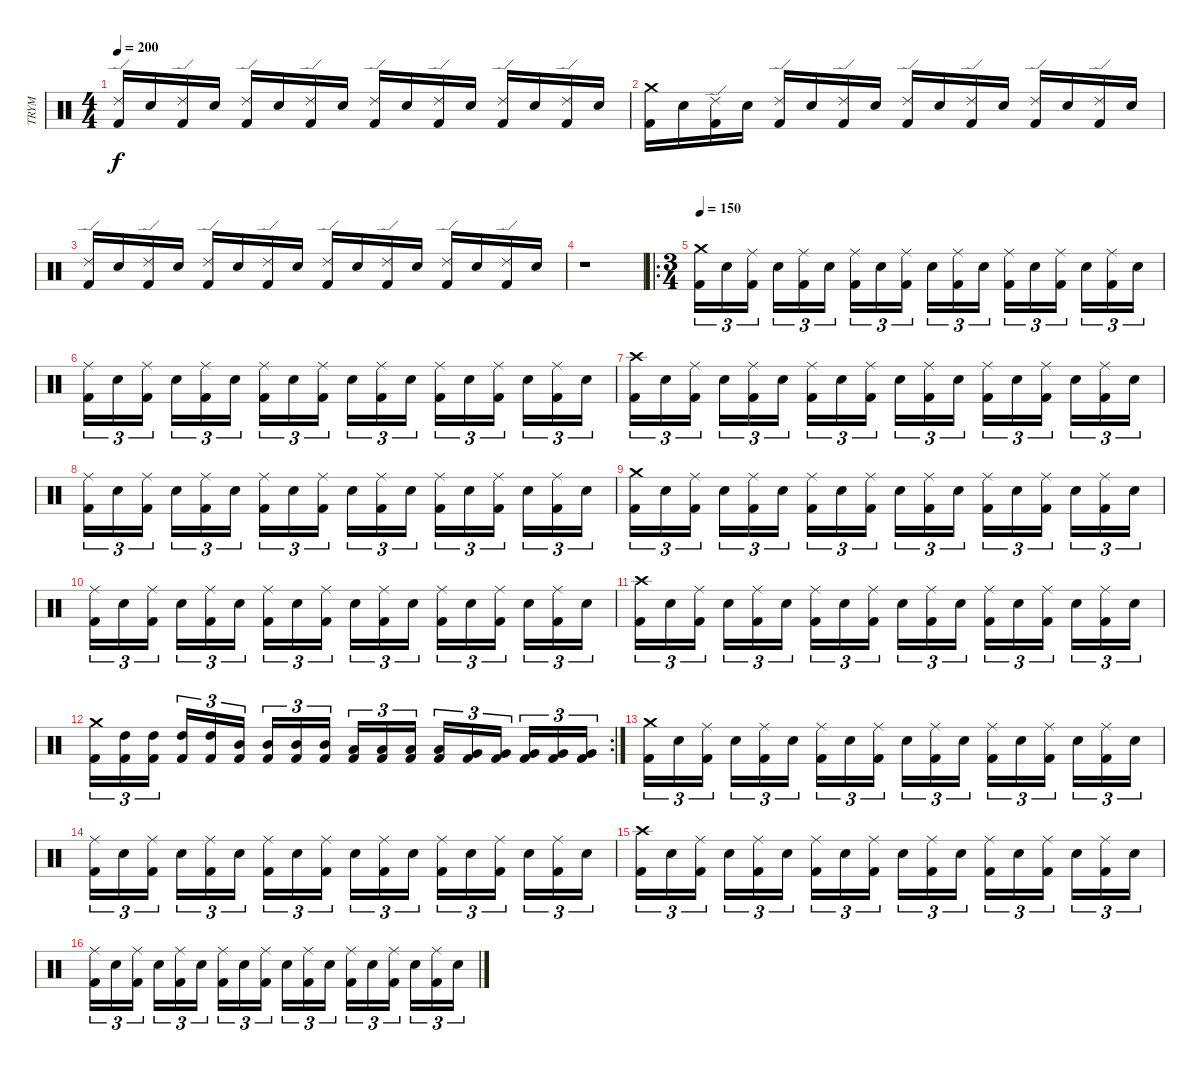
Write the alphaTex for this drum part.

\track ("TRYM" "TRYM") {instrument percussion}
\staff {score}
\articulation defaults
\ts (4 4)
\tempo 200
\clef neutral
\ks c
("Kick (hit) 2" "Ride (edge) 2").16{dy f} "Electric Snare (hit)".16 ("Kick (hit) 2" "Ride (edge) 2").16 "Electric Snare (hit)".16 ("Kick (hit) 2" "Ride (edge) 2").16 "Electric Snare (hit)".16 ("Kick (hit) 2" "Ride (edge) 2").16 "Electric Snare (hit)".16 ("Kick (hit) 2" "Ride (edge) 2").16 "Electric Snare (hit)".16 ("Kick (hit) 2" "Ride (edge) 2").16 "Electric Snare (hit)".16 ("Kick (hit) 2" "Ride (edge) 2").16 "Electric Snare (hit)".16 ("Kick (hit) 2" "Ride (edge) 2").16 "Electric Snare (hit)".16 |
("Kick (hit) 2" "Crash medium (hit)").16 "Electric Snare (hit)".16 ("Kick (hit) 2" "Ride (edge) 2").16 "Electric Snare (hit)".16 ("Kick (hit) 2" "Ride (edge) 2").16 "Electric Snare (hit)".16 ("Kick (hit) 2" "Ride (edge) 2").16 "Electric Snare (hit)".16 ("Kick (hit) 2" "Ride (edge) 2").16 "Electric Snare (hit)".16 ("Kick (hit) 2" "Ride (edge) 2").16 "Electric Snare (hit)".16 ("Kick (hit) 2" "Ride (edge) 2").16 "Electric Snare (hit)".16 ("Kick (hit) 2" "Ride (edge) 2").16 "Electric Snare (hit)".16 |
("Kick (hit) 2" "Ride (edge) 2").16 "Electric Snare (hit)".16 ("Kick (hit) 2" "Ride (edge) 2").16 "Electric Snare (hit)".16 ("Kick (hit) 2" "Ride (edge) 2").16 "Electric Snare (hit)".16 ("Kick (hit) 2" "Ride (edge) 2").16 "Electric Snare (hit)".16 ("Kick (hit) 2" "Ride (edge) 2").16 "Electric Snare (hit)".16 ("Kick (hit) 2" "Ride (edge) 2").16 "Electric Snare (hit)".16 ("Kick (hit) 2" "Ride (edge) 2").16 "Electric Snare (hit)".16 ("Kick (hit) 2" "Ride (edge) 2").16 "Electric Snare (hit)".16 |
r.1 |
\ro
\ts (3 4)
\tempo 150
("Kick (hit) 2" "Crash medium (hit)").16{tu (3 2)} "Electric Snare (hit)".16{tu (3 2)} ("Kick (hit) 2" "Ride (middle)").16{tu (3 2) beam splitsecondary} "Electric Snare (hit)".16{tu (3 2)} ("Kick (hit) 2" "Ride (middle)").16{tu (3 2)} "Electric Snare (hit)".16{tu (3 2)} ("Kick (hit) 2" "Ride (middle)").16{tu (3 2)} "Electric Snare (hit)".16{tu (3 2)} ("Kick (hit) 2" "Ride (middle)").16{tu (3 2) beam splitsecondary} "Electric Snare (hit)".16{tu (3 2)} ("Kick (hit) 2" "Ride (middle)").16{tu (3 2)} "Electric Snare (hit)".16{tu (3 2)} ("Kick (hit) 2" "Ride (middle)").16{tu (3 2)} "Electric Snare (hit)".16{tu (3 2)} ("Kick (hit) 2" "Ride (middle)").16{tu (3 2) beam splitsecondary} "Electric Snare (hit)".16{tu (3 2)} ("Kick (hit) 2" "Ride (middle)").16{tu (3 2)} "Electric Snare (hit)".16{tu (3 2)} |
("Kick (hit) 2" "Ride (middle)").16{tu (3 2)} "Electric Snare (hit)".16{tu (3 2)} ("Kick (hit) 2" "Ride (middle)").16{tu (3 2) beam splitsecondary} "Electric Snare (hit)".16{tu (3 2)} ("Kick (hit) 2" "Ride (middle)").16{tu (3 2)} "Electric Snare (hit)".16{tu (3 2)} ("Kick (hit) 2" "Ride (middle)").16{tu (3 2)} "Electric Snare (hit)".16{tu (3 2)} ("Kick (hit) 2" "Ride (middle)").16{tu (3 2) beam splitsecondary} "Electric Snare (hit)".16{tu (3 2)} ("Kick (hit) 2" "Ride (middle)").16{tu (3 2)} "Electric Snare (hit)".16{tu (3 2)} ("Kick (hit) 2" "Ride (middle)").16{tu (3 2)} "Electric Snare (hit)".16{tu (3 2)} ("Kick (hit) 2" "Ride (middle)").16{tu (3 2) beam splitsecondary} "Electric Snare (hit)".16{tu (3 2)} ("Kick (hit) 2" "Ride (middle)").16{tu (3 2)} "Electric Snare (hit)".16{tu (3 2)} |
("Kick (hit) 2" "Crash high (hit)").16{tu (3 2)} "Electric Snare (hit)".16{tu (3 2)} ("Kick (hit) 2" "Ride (middle)").16{tu (3 2) beam splitsecondary} "Electric Snare (hit)".16{tu (3 2)} ("Kick (hit) 2" "Ride (middle)").16{tu (3 2)} "Electric Snare (hit)".16{tu (3 2)} ("Kick (hit) 2" "Ride (middle)").16{tu (3 2)} "Electric Snare (hit)".16{tu (3 2)} ("Kick (hit) 2" "Ride (middle)").16{tu (3 2) beam splitsecondary} "Electric Snare (hit)".16{tu (3 2)} ("Kick (hit) 2" "Ride (middle)").16{tu (3 2)} "Electric Snare (hit)".16{tu (3 2)} ("Kick (hit) 2" "Ride (middle)").16{tu (3 2)} "Electric Snare (hit)".16{tu (3 2)} ("Kick (hit) 2" "Ride (middle)").16{tu (3 2) beam splitsecondary} "Electric Snare (hit)".16{tu (3 2)} ("Kick (hit) 2" "Ride (middle)").16{tu (3 2)} "Electric Snare (hit)".16{tu (3 2)} |
("Kick (hit) 2" "Ride (middle)").16{tu (3 2)} "Electric Snare (hit)".16{tu (3 2)} ("Kick (hit) 2" "Ride (middle)").16{tu (3 2) beam splitsecondary} "Electric Snare (hit)".16{tu (3 2)} ("Kick (hit) 2" "Ride (middle)").16{tu (3 2)} "Electric Snare (hit)".16{tu (3 2)} ("Kick (hit) 2" "Ride (middle)").16{tu (3 2)} "Electric Snare (hit)".16{tu (3 2)} ("Kick (hit) 2" "Ride (middle)").16{tu (3 2) beam splitsecondary} "Electric Snare (hit)".16{tu (3 2)} ("Kick (hit) 2" "Ride (middle)").16{tu (3 2)} "Electric Snare (hit)".16{tu (3 2)} ("Kick (hit) 2" "Ride (middle)").16{tu (3 2)} "Electric Snare (hit)".16{tu (3 2)} ("Kick (hit) 2" "Ride (middle)").16{tu (3 2) beam splitsecondary} "Electric Snare (hit)".16{tu (3 2)} ("Kick (hit) 2" "Ride (middle)").16{tu (3 2)} "Electric Snare (hit)".16{tu (3 2)} |
("Kick (hit) 2" "Crash medium (hit)").16{tu (3 2)} "Electric Snare (hit)".16{tu (3 2)} ("Kick (hit) 2" "Ride (middle)").16{tu (3 2) beam splitsecondary} "Electric Snare (hit)".16{tu (3 2)} ("Kick (hit) 2" "Ride (middle)").16{tu (3 2)} "Electric Snare (hit)".16{tu (3 2)} ("Kick (hit) 2" "Ride (middle)").16{tu (3 2)} "Electric Snare (hit)".16{tu (3 2)} ("Kick (hit) 2" "Ride (middle)").16{tu (3 2) beam splitsecondary} "Electric Snare (hit)".16{tu (3 2)} ("Kick (hit) 2" "Ride (middle)").16{tu (3 2)} "Electric Snare (hit)".16{tu (3 2)} ("Kick (hit) 2" "Ride (middle)").16{tu (3 2)} "Electric Snare (hit)".16{tu (3 2)} ("Kick (hit) 2" "Ride (middle)").16{tu (3 2) beam splitsecondary} "Electric Snare (hit)".16{tu (3 2)} ("Kick (hit) 2" "Ride (middle)").16{tu (3 2)} "Electric Snare (hit)".16{tu (3 2)} |
("Kick (hit) 2" "Ride (middle)").16{tu (3 2)} "Electric Snare (hit)".16{tu (3 2)} ("Kick (hit) 2" "Ride (middle)").16{tu (3 2) beam splitsecondary} "Electric Snare (hit)".16{tu (3 2)} ("Kick (hit) 2" "Ride (middle)").16{tu (3 2)} "Electric Snare (hit)".16{tu (3 2)} ("Kick (hit) 2" "Ride (middle)").16{tu (3 2)} "Electric Snare (hit)".16{tu (3 2)} ("Kick (hit) 2" "Ride (middle)").16{tu (3 2) beam splitsecondary} "Electric Snare (hit)".16{tu (3 2)} ("Kick (hit) 2" "Ride (middle)").16{tu (3 2)} "Electric Snare (hit)".16{tu (3 2)} ("Kick (hit) 2" "Ride (middle)").16{tu (3 2)} "Electric Snare (hit)".16{tu (3 2)} ("Kick (hit) 2" "Ride (middle)").16{tu (3 2) beam splitsecondary} "Electric Snare (hit)".16{tu (3 2)} ("Kick (hit) 2" "Ride (middle)").16{tu (3 2)} "Electric Snare (hit)".16{tu (3 2)} |
("Kick (hit) 2" "Crash high (hit)").16{tu (3 2)} "Electric Snare (hit)".16{tu (3 2)} ("Kick (hit) 2" "Ride (middle)").16{tu (3 2) beam splitsecondary} "Electric Snare (hit)".16{tu (3 2)} ("Kick (hit) 2" "Ride (middle)").16{tu (3 2)} "Electric Snare (hit)".16{tu (3 2)} ("Kick (hit) 2" "Ride (middle)").16{tu (3 2)} "Electric Snare (hit)".16{tu (3 2)} ("Kick (hit) 2" "Ride (middle)").16{tu (3 2) beam splitsecondary} "Electric Snare (hit)".16{tu (3 2)} ("Kick (hit) 2" "Ride (middle)").16{tu (3 2)} "Electric Snare (hit)".16{tu (3 2)} ("Kick (hit) 2" "Ride (middle)").16{tu (3 2)} "Electric Snare (hit)".16{tu (3 2)} ("Kick (hit) 2" "Ride (middle)").16{tu (3 2) beam splitsecondary} "Electric Snare (hit)".16{tu (3 2)} ("Kick (hit) 2" "Ride (middle)").16{tu (3 2)} "Electric Snare (hit)".16{tu (3 2)} |
\rc 2
("Kick (hit) 2" "Crash medium (hit)").16{tu (3 2)} ("Kick (hit) 2" "High Tom (hit)").16{tu (3 2)} ("Kick (hit) 2" "High Tom (hit)").16{tu (3 2) beam splitsecondary} ("Kick (hit) 2" "High Tom (hit)").16{tu (3 2)} ("Kick (hit) 2" "High Tom (hit)").16{tu (3 2)} ("Kick (hit) 2" "Mid Tom (hit)").16{tu (3 2)} ("Kick (hit) 2" "Mid Tom (hit)").16{tu (3 2)} ("Kick (hit) 2" "Mid Tom (hit)").16{tu (3 2)} ("Kick (hit) 2" "Mid Tom (hit)").16{tu (3 2) beam splitsecondary} ("Kick (hit) 2" "Low Tom (hit)").16{tu (3 2)} ("Kick (hit) 2" "Low Tom (hit)").16{tu (3 2)} ("Kick (hit) 2" "Low Tom (hit)").16{tu (3 2)} ("Kick (hit) 2" "Low Tom (hit)").16{tu (3 2)} ("Kick (hit) 2" "Very Low Tom (hit)").16{tu (3 2)} ("Kick (hit) 2" "Very Low Tom (hit)").16{tu (3 2) beam splitsecondary} ("Kick (hit) 2" "Very Low Tom (hit)").16{tu (3 2)} ("Kick (hit) 2" "Very Low Tom (hit)").16{tu (3 2)} ("Kick (hit) 2" "Very Low Tom (hit)").16{tu (3 2)} |
("Kick (hit) 2" "Crash medium (hit)").16{tu (3 2)} "Electric Snare (hit)".16{tu (3 2)} ("Kick (hit) 2" "Ride (middle)").16{tu (3 2) beam splitsecondary} "Electric Snare (hit)".16{tu (3 2)} ("Kick (hit) 2" "Ride (middle)").16{tu (3 2)} "Electric Snare (hit)".16{tu (3 2)} ("Kick (hit) 2" "Ride (middle)").16{tu (3 2)} "Electric Snare (hit)".16{tu (3 2)} ("Kick (hit) 2" "Ride (middle)").16{tu (3 2) beam splitsecondary} "Electric Snare (hit)".16{tu (3 2)} ("Kick (hit) 2" "Ride (middle)").16{tu (3 2)} "Electric Snare (hit)".16{tu (3 2)} ("Kick (hit) 2" "Ride (middle)").16{tu (3 2)} "Electric Snare (hit)".16{tu (3 2)} ("Kick (hit) 2" "Ride (middle)").16{tu (3 2) beam splitsecondary} "Electric Snare (hit)".16{tu (3 2)} ("Kick (hit) 2" "Ride (middle)").16{tu (3 2)} "Electric Snare (hit)".16{tu (3 2)} |
("Kick (hit) 2" "Ride (middle)").16{tu (3 2)} "Electric Snare (hit)".16{tu (3 2)} ("Kick (hit) 2" "Ride (middle)").16{tu (3 2) beam splitsecondary} "Electric Snare (hit)".16{tu (3 2)} ("Kick (hit) 2" "Ride (middle)").16{tu (3 2)} "Electric Snare (hit)".16{tu (3 2)} ("Kick (hit) 2" "Ride (middle)").16{tu (3 2)} "Electric Snare (hit)".16{tu (3 2)} ("Kick (hit) 2" "Ride (middle)").16{tu (3 2) beam splitsecondary} "Electric Snare (hit)".16{tu (3 2)} ("Kick (hit) 2" "Ride (middle)").16{tu (3 2)} "Electric Snare (hit)".16{tu (3 2)} ("Kick (hit) 2" "Ride (middle)").16{tu (3 2)} "Electric Snare (hit)".16{tu (3 2)} ("Kick (hit) 2" "Ride (middle)").16{tu (3 2) beam splitsecondary} "Electric Snare (hit)".16{tu (3 2)} ("Kick (hit) 2" "Ride (middle)").16{tu (3 2)} "Electric Snare (hit)".16{tu (3 2)} |
("Kick (hit) 2" "Crash high (hit)").16{tu (3 2)} "Electric Snare (hit)".16{tu (3 2)} ("Kick (hit) 2" "Ride (middle)").16{tu (3 2) beam splitsecondary} "Electric Snare (hit)".16{tu (3 2)} ("Kick (hit) 2" "Ride (middle)").16{tu (3 2)} "Electric Snare (hit)".16{tu (3 2)} ("Kick (hit) 2" "Ride (middle)").16{tu (3 2)} "Electric Snare (hit)".16{tu (3 2)} ("Kick (hit) 2" "Ride (middle)").16{tu (3 2) beam splitsecondary} "Electric Snare (hit)".16{tu (3 2)} ("Kick (hit) 2" "Ride (middle)").16{tu (3 2)} "Electric Snare (hit)".16{tu (3 2)} ("Kick (hit) 2" "Ride (middle)").16{tu (3 2)} "Electric Snare (hit)".16{tu (3 2)} ("Kick (hit) 2" "Ride (middle)").16{tu (3 2) beam splitsecondary} "Electric Snare (hit)".16{tu (3 2)} ("Kick (hit) 2" "Ride (middle)").16{tu (3 2)} "Electric Snare (hit)".16{tu (3 2)} |
("Kick (hit) 2" "Ride (middle)").16{tu (3 2)} "Electric Snare (hit)".16{tu (3 2)} ("Kick (hit) 2" "Ride (middle)").16{tu (3 2) beam splitsecondary} "Electric Snare (hit)".16{tu (3 2)} ("Kick (hit) 2" "Ride (middle)").16{tu (3 2)} "Electric Snare (hit)".16{tu (3 2)} ("Kick (hit) 2" "Ride (middle)").16{tu (3 2)} "Electric Snare (hit)".16{tu (3 2)} ("Kick (hit) 2" "Ride (middle)").16{tu (3 2) beam splitsecondary} "Electric Snare (hit)".16{tu (3 2)} ("Kick (hit) 2" "Ride (middle)").16{tu (3 2)} "Electric Snare (hit)".16{tu (3 2)} ("Kick (hit) 2" "Ride (middle)").16{tu (3 2)} "Electric Snare (hit)".16{tu (3 2)} ("Kick (hit) 2" "Ride (middle)").16{tu (3 2) beam splitsecondary} "Electric Snare (hit)".16{tu (3 2)} ("Kick (hit) 2" "Ride (middle)").16{tu (3 2)} "Electric Snare (hit)".16{tu (3 2)}
